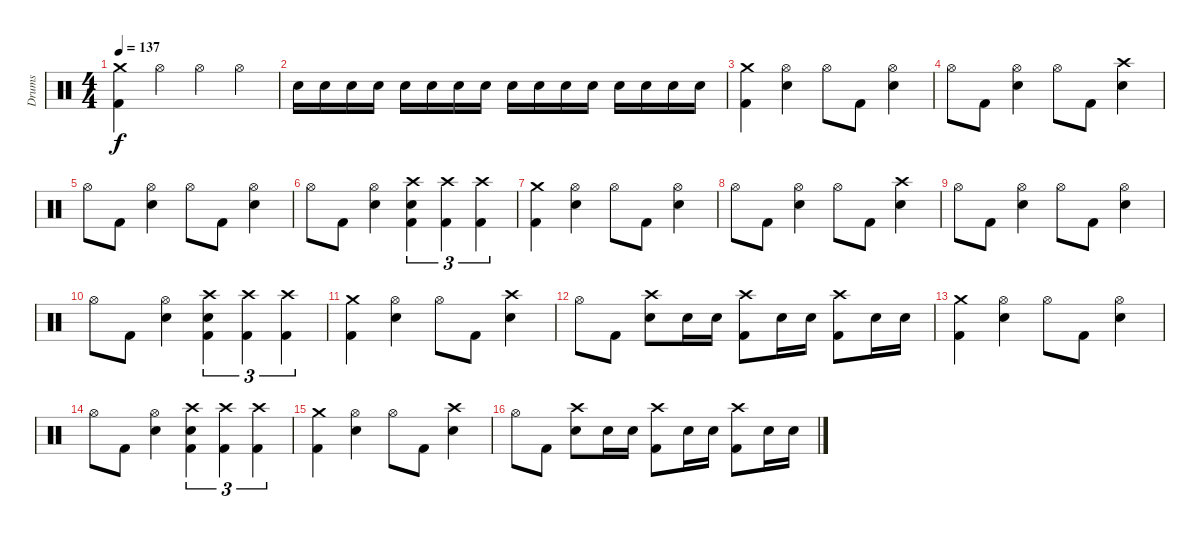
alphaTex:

\track ("Drums" "Drums") {instrument percussion}
\staff {score}
\articulation defaults
\ts (4 4)
\tempo 137
\clef neutral
\ks c
("Crash medium (hit)" "Kick (hit) 2").4{dy f} "Hi-Hat (open)".4 "Hi-Hat (open)".4 "Hi-Hat (open)".4 |
"Snare (hit) 2".16 "Snare (hit) 2".16 "Snare (hit) 2".16 "Snare (hit) 2".16 "Snare (hit) 2".16 "Snare (hit) 2".16 "Snare (hit) 2".16 "Snare (hit) 2".16 "Snare (hit) 2".16 "Snare (hit) 2".16 "Snare (hit) 2".16 "Snare (hit) 2".16 "Snare (hit) 2".16 "Snare (hit) 2".16 "Snare (hit) 2".16 "Snare (hit) 2".16 |
("Crash medium (hit)" "Kick (hit) 2").4 ("Hi-Hat (open)" "Snare (hit) 2").4 "Hi-Hat (open)".8 "Kick (hit) 2".8 ("Hi-Hat (open)" "Snare (hit) 2").4 |
"Hi-Hat (open)".8 "Kick (hit) 2".8 ("Hi-Hat (open)" "Snare (hit) 2").4 "Hi-Hat (open)".8 "Kick (hit) 2".8 ("Crash high (hit)" "Snare (hit) 2").4 |
"Hi-Hat (open)".8 "Kick (hit) 2".8 ("Hi-Hat (open)" "Snare (hit) 2").4 "Hi-Hat (open)".8 "Kick (hit) 2".8 ("Hi-Hat (open)" "Snare (hit) 2").4 |
"Hi-Hat (open)".8 "Kick (hit) 2".8 ("Hi-Hat (open)" "Snare (hit) 2").4 ("Crash high (hit)" "Snare (hit) 2" "Kick (hit) 2").4{tu (3 2)} ("Crash high (hit)" "Kick (hit) 2").4{tu (3 2)} ("Crash high (hit)" "Kick (hit) 2").4{tu (3 2)} |
("Crash medium (hit)" "Kick (hit) 2").4 ("Hi-Hat (open)" "Snare (hit) 2").4 "Hi-Hat (open)".8 "Kick (hit) 2".8 ("Hi-Hat (open)" "Snare (hit) 2").4 |
"Hi-Hat (open)".8 "Kick (hit) 2".8 ("Hi-Hat (open)" "Snare (hit) 2").4 "Hi-Hat (open)".8 "Kick (hit) 2".8 ("Crash high (hit)" "Snare (hit) 2").4 |
"Hi-Hat (open)".8 "Kick (hit) 2".8 ("Hi-Hat (open)" "Snare (hit) 2").4 "Hi-Hat (open)".8 "Kick (hit) 2".8 ("Hi-Hat (open)" "Snare (hit) 2").4 |
"Hi-Hat (open)".8 "Kick (hit) 2".8 ("Hi-Hat (open)" "Snare (hit) 2").4 ("Crash high (hit)" "Snare (hit) 2" "Kick (hit) 2").4{tu (3 2)} ("Crash high (hit)" "Kick (hit) 2").4{tu (3 2)} ("Crash high (hit)" "Kick (hit) 2").4{tu (3 2)} |
("Crash medium (hit)" "Kick (hit) 2").4 ("Hi-Hat (open)" "Snare (hit) 2").4 "Hi-Hat (open)".8 "Kick (hit) 2".8 ("Crash high (hit)" "Snare (hit) 2").4 |
"Hi-Hat (open)".8 "Kick (hit) 2".8 ("Crash high (hit)" "Snare (hit) 2").8 "Snare (hit) 2".16 "Snare (hit) 2".16 ("Crash high (hit)" "Kick (hit) 2").8 "Snare (hit) 2".16 "Snare (hit) 2".16 ("Crash high (hit)" "Kick (hit) 2").8 "Snare (hit) 2".16 "Snare (hit) 2".16 |
("Crash medium (hit)" "Kick (hit) 2").4 ("Hi-Hat (open)" "Snare (hit) 2").4 "Hi-Hat (open)".8 "Kick (hit) 2".8 ("Hi-Hat (open)" "Snare (hit) 2").4 |
"Hi-Hat (open)".8 "Kick (hit) 2".8 ("Hi-Hat (open)" "Snare (hit) 2").4 ("Crash high (hit)" "Snare (hit) 2" "Kick (hit) 2").4{tu (3 2)} ("Crash high (hit)" "Kick (hit) 2").4{tu (3 2)} ("Crash high (hit)" "Kick (hit) 2").4{tu (3 2)} |
("Crash medium (hit)" "Kick (hit) 2").4 ("Hi-Hat (open)" "Snare (hit) 2").4 "Hi-Hat (open)".8 "Kick (hit) 2".8 ("Crash high (hit)" "Snare (hit) 2").4 |
"Hi-Hat (open)".8 "Kick (hit) 2".8 ("Crash high (hit)" "Snare (hit) 2").8 "Snare (hit) 2".16 "Snare (hit) 2".16 ("Crash high (hit)" "Kick (hit) 2").8 "Snare (hit) 2".16 "Snare (hit) 2".16 ("Crash high (hit)" "Kick (hit) 2").8 "Snare (hit) 2".16 "Snare (hit) 2".16
